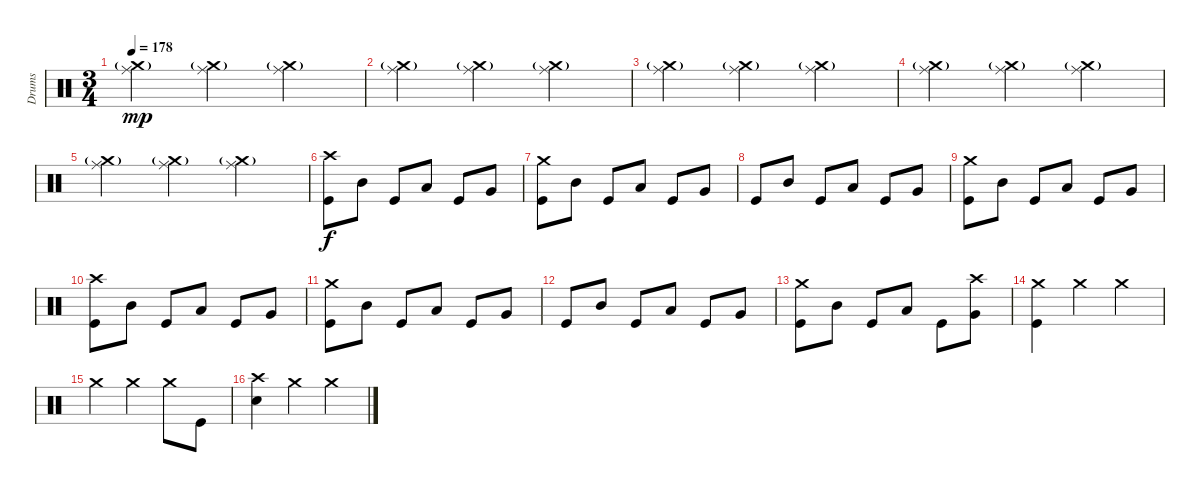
\track ("Drums" "Drums") {instrument percussion}
\staff {score}
\articulation defaults
\ts (3 4)
\tempo 178
\clef neutral
\ks c
("Ride (middle)" "Crash medium (hit)"{g}).4{dy mp} ("Ride (middle)" "Crash medium (hit)"{g}).4 ("Ride (middle)" "Crash medium (hit)"{g}).4 |
("Ride (middle)" "Crash medium (hit)"{g}).4 ("Ride (middle)" "Crash medium (hit)"{g}).4 ("Ride (middle)" "Crash medium (hit)"{g}).4 |
("Ride (middle)" "Crash medium (hit)"{g}).4 ("Ride (middle)" "Crash medium (hit)"{g}).4 ("Ride (middle)" "Crash medium (hit)"{g}).4 |
("Ride (middle)" "Crash medium (hit)"{g}).4 ("Ride (middle)" "Crash medium (hit)"{g}).4 ("Ride (middle)" "Crash medium (hit)"{g}).4 |
("Ride (middle)" "Crash medium (hit)"{g}).4 ("Ride (middle)" "Crash medium (hit)"{g}).4 ("Ride (middle)" "Crash medium (hit)"{g}).4 |
("Kick (hit)" "Crash high (hit)").8{dy f} "Mid Tom (hit)".8 "Kick (hit)".8 "Low Tom (hit)".8 "Kick (hit)".8 "Very Low Tom (hit)".8 |
("Kick (hit)" "Crash medium (hit)").8 "Mid Tom (hit)".8 "Kick (hit)".8 "Low Tom (hit)".8 "Kick (hit)".8 "Very Low Tom (hit)".8 |
"Kick (hit)".8 "Mid Tom (hit)".8 "Kick (hit)".8 "Low Tom (hit)".8 "Kick (hit)".8 "Very Low Tom (hit)".8 |
("Kick (hit)" "Crash medium (hit)").8 "Mid Tom (hit)".8 "Kick (hit)".8 "Low Tom (hit)".8 "Kick (hit)".8 "Very Low Tom (hit)".8 |
("Kick (hit)" "Crash high (hit)").8 "Mid Tom (hit)".8 "Kick (hit)".8 "Low Tom (hit)".8 "Kick (hit)".8 "Very Low Tom (hit)".8 |
("Kick (hit)" "Crash medium (hit)").8 "Mid Tom (hit)".8 "Kick (hit)".8 "Low Tom (hit)".8 "Kick (hit)".8 "Very Low Tom (hit)".8 |
"Kick (hit)".8 "Mid Tom (hit)".8 "Kick (hit)".8 "Low Tom (hit)".8 "Kick (hit)".8 "Very Low Tom (hit)".8 |
("Kick (hit)" "Crash medium (hit)").8 "Mid Tom (hit)".8 "Kick (hit)".8 "Low Tom (hit)".8 "Kick (hit)".8 ("Very Low Tom (hit)" "Crash high (hit)").8 |
("Kick (hit)" "Crash medium (hit)").4 "Crash medium (hit)".4 "Crash medium (hit)".4 |
"Crash medium (hit)".4 "Crash medium (hit)".4 "Crash medium (hit)".8 "Kick (hit)".8 |
("Snare (hit) 2" "Crash high (hit)").4 "Crash medium (hit)".4 "Crash medium (hit)".4
